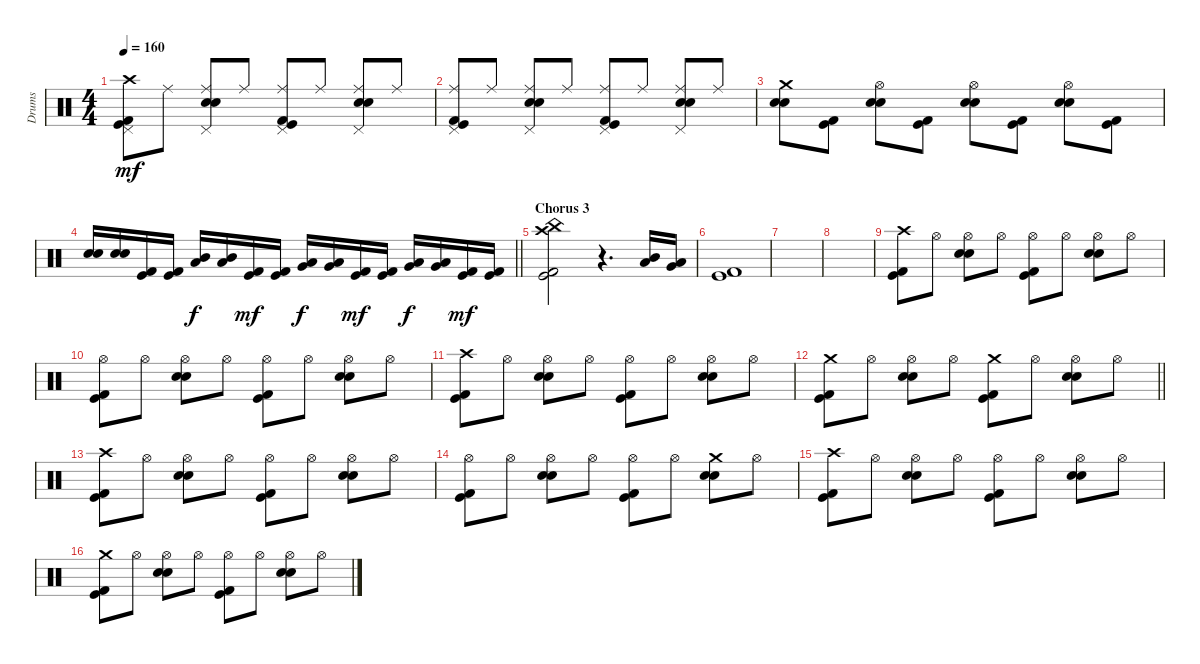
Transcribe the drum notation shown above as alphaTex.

\track ("Drums" "Drums") {instrument percussion}
\staff {score}
\articulation defaults
\ts (4 4)
\tempo 160
\clef neutral
\ks c
("Crash high (hit)" "Pedal Hi-Hat (hit)" "Kick (hit) 2" "Kick (hit)").8{dy mf} "Ride (middle)".8 ("Ride (middle)" "Pedal Hi-Hat (hit)" "Snare (hit) 2" "Electric Snare (hit)").8 "Ride (middle)".8 ("Ride (middle)" "Pedal Hi-Hat (hit)" "Kick (hit) 2" "Kick (hit)").8 "Ride (middle)".8 ("Ride (middle)" "Pedal Hi-Hat (hit)" "Snare (hit) 2" "Electric Snare (hit)").8 "Ride (middle)".8 |
("Ride (middle)" "Pedal Hi-Hat (hit)" "Kick (hit) 2" "Kick (hit)").8 "Ride (middle)".8 ("Ride (middle)" "Pedal Hi-Hat (hit)" "Snare (hit) 2" "Electric Snare (hit)").8 "Ride (middle)".8 ("Ride (middle)" "Pedal Hi-Hat (hit)" "Kick (hit) 2" "Kick (hit)").8 "Ride (middle)".8 ("Ride (middle)" "Pedal Hi-Hat (hit)" "Snare (hit) 2" "Electric Snare (hit)").8 "Ride (middle)".8 |
("Crash medium (hit)" "Snare (hit) 2" "Electric Snare (hit)").8 ("Kick (hit) 2" "Kick (hit)").8 ("Hi-Hat (open)" "Snare (hit) 2" "Electric Snare (hit)").8 ("Kick (hit) 2" "Kick (hit)").8 ("Hi-Hat (open)" "Snare (hit) 2" "Electric Snare (hit)").8 ("Kick (hit) 2" "Kick (hit)").8 ("Hi-Hat (open)" "Snare (hit) 2" "Electric Snare (hit)").8 ("Kick (hit) 2" "Kick (hit)").8 |
\barLineRight lightlight
("Snare (hit) 2" "Electric Snare (hit)").16 ("Snare (hit) 2" "Electric Snare (hit)").16 ("Kick (hit) 2" "Kick (hit)").16 ("Kick (hit) 2" "Kick (hit)").16 ("Mid Tom (hit)" "Low Tom (hit)").16{dy f} ("Mid Tom (hit)" "Low Tom (hit)").16 ("Kick (hit) 2" "Kick (hit)").16{dy mf} ("Kick (hit) 2" "Kick (hit)").16 ("Low Tom (hit)" "Very Low Tom (hit)").16{dy f} ("Low Tom (hit)" "Very Low Tom (hit)").16 ("Kick (hit) 2" "Kick (hit)").16{dy mf} ("Kick (hit) 2" "Kick (hit)").16 ("Very Low Tom (hit)" "Low Floor Tom (hit)").16{dy f} ("Very Low Tom (hit)" "Low Floor Tom (hit)").16 ("Kick (hit) 2" "Kick (hit)").16{dy mf} ("Kick (hit) 2" "Kick (hit)").16 |
\section ("" "Chorus 3")
("Crash high (hit)" "China (hit)" "Kick (hit) 2" "Kick (hit)").2 r.4{d} ("Mid Tom (hit)" "Low Tom (hit)").16 ("Low Tom (hit)" "Very Low Tom (hit)").16 |
("Kick (hit) 2" "Kick (hit)").1 |
|
|
("Crash high (hit)" "Kick (hit) 2" "Kick (hit)").8 "Hi-Hat (open)".8 ("Hi-Hat (open)" "Snare (hit) 2" "Electric Snare (hit)").8 "Hi-Hat (open)".8 ("Hi-Hat (open)" "Kick (hit) 2" "Kick (hit)").8 "Hi-Hat (open)".8 ("Hi-Hat (open)" "Snare (hit) 2" "Electric Snare (hit)").8 "Hi-Hat (open)".8 |
("Hi-Hat (open)" "Kick (hit) 2" "Kick (hit)").8 "Hi-Hat (open)".8 ("Hi-Hat (open)" "Snare (hit) 2" "Electric Snare (hit)").8 "Hi-Hat (open)".8 ("Hi-Hat (open)" "Kick (hit) 2" "Kick (hit)").8 "Hi-Hat (open)".8 ("Hi-Hat (open)" "Snare (hit) 2" "Electric Snare (hit)").8 "Hi-Hat (open)".8 |
("Crash high (hit)" "Kick (hit) 2" "Kick (hit)").8 "Hi-Hat (open)".8 ("Hi-Hat (open)" "Snare (hit) 2" "Electric Snare (hit)").8 "Hi-Hat (open)".8 ("Hi-Hat (open)" "Kick (hit) 2" "Kick (hit)").8 "Hi-Hat (open)".8 ("Hi-Hat (open)" "Snare (hit) 2" "Electric Snare (hit)").8 "Hi-Hat (open)".8 |
\barLineRight lightlight
("Crash medium (hit)" "Kick (hit) 2" "Kick (hit)").8 "Hi-Hat (open)".8 ("Hi-Hat (open)" "Snare (hit) 2" "Electric Snare (hit)").8 "Hi-Hat (open)".8 ("Crash medium (hit)" "Kick (hit) 2" "Kick (hit)").8 "Hi-Hat (open)".8 ("Hi-Hat (open)" "Snare (hit) 2" "Electric Snare (hit)").8 "Hi-Hat (open)".8 |
("Crash high (hit)" "Kick (hit) 2" "Kick (hit)").8 "Hi-Hat (open)".8 ("Hi-Hat (open)" "Snare (hit) 2" "Electric Snare (hit)").8 "Hi-Hat (open)".8 ("Hi-Hat (open)" "Kick (hit) 2" "Kick (hit)").8 "Hi-Hat (open)".8 ("Hi-Hat (open)" "Snare (hit) 2" "Electric Snare (hit)").8 "Hi-Hat (open)".8 |
("Hi-Hat (open)" "Kick (hit) 2" "Kick (hit)").8 "Hi-Hat (open)".8 ("Hi-Hat (open)" "Snare (hit) 2" "Electric Snare (hit)").8 "Hi-Hat (open)".8 ("Hi-Hat (open)" "Kick (hit) 2" "Kick (hit)").8 "Hi-Hat (open)".8 ("Crash medium (hit)" "Snare (hit) 2" "Electric Snare (hit)").8 "Hi-Hat (open)".8 |
("Crash high (hit)" "Kick (hit) 2" "Kick (hit)").8 "Hi-Hat (open)".8 ("Hi-Hat (open)" "Snare (hit) 2" "Electric Snare (hit)").8 "Hi-Hat (open)".8 ("Hi-Hat (open)" "Kick (hit) 2" "Kick (hit)").8 "Hi-Hat (open)".8 ("Hi-Hat (open)" "Snare (hit) 2" "Electric Snare (hit)").8 "Hi-Hat (open)".8 |
("Crash medium (hit)" "Kick (hit) 2" "Kick (hit)").8 "Hi-Hat (open)".8 ("Hi-Hat (open)" "Snare (hit) 2" "Electric Snare (hit)").8 "Hi-Hat (open)".8 ("Hi-Hat (open)" "Kick (hit) 2" "Kick (hit)").8 "Hi-Hat (open)".8 ("Hi-Hat (open)" "Snare (hit) 2" "Electric Snare (hit)").8 "Hi-Hat (open)".8
